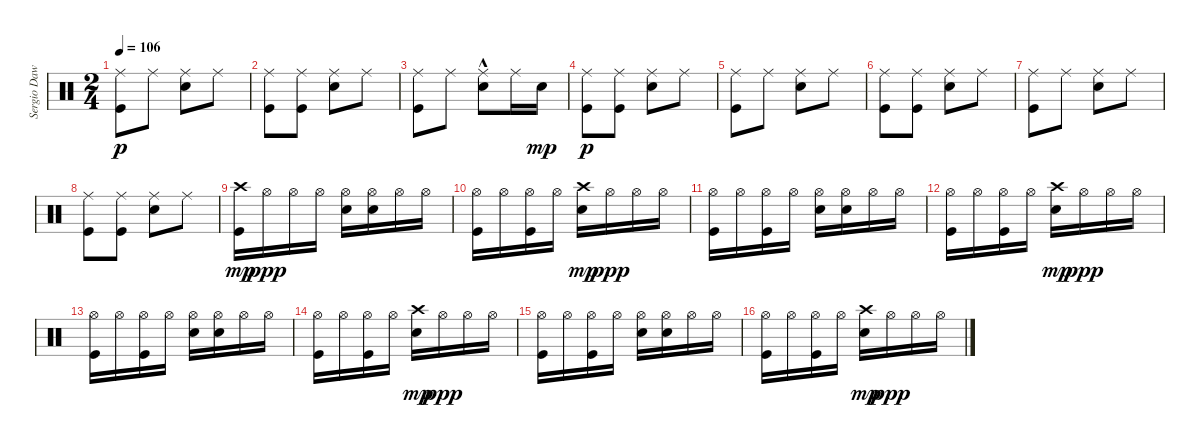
\track ("Sergio Dawi" "Sergio Daw") {instrument percussion}
\staff {score}
\articulation defaults
\ts (2 4)
\tempo 106
\clef neutral
\ks c
("Kick (hit)" "Ride (middle)").8{dy p} "Ride (middle)".8 ("Electric Snare (hit)" "Ride (middle)").8 "Ride (middle)".8 |
("Kick (hit)" "Ride (middle)").8 ("Kick (hit)" "Ride (middle)").8 ("Electric Snare (hit)" "Ride (middle)").8 "Ride (middle)".8 |
("Kick (hit)" "Ride (middle)").8 "Ride (middle)".8 ("Electric Snare (hit)"{hac} "Ride (middle)").8 "Ride (middle)".16 "Electric Snare (hit)".16{dy mp} |
("Kick (hit)" "Ride (middle)").8{dy p} ("Kick (hit)" "Ride (middle)").8 ("Electric Snare (hit)" "Ride (middle)").8 "Ride (middle)".8 |
("Kick (hit)" "Ride (middle)").8 "Ride (middle)".8 ("Electric Snare (hit)" "Ride (middle)").8 "Ride (middle)".8 |
("Kick (hit)" "Ride (middle)").8 ("Kick (hit)" "Ride (middle)").8 ("Electric Snare (hit)" "Ride (middle)").8 "Ride (middle)".8 |
("Kick (hit)" "Ride (middle)").8 "Ride (middle)".8 ("Electric Snare (hit)" "Ride (middle)").8 "Ride (middle)".8 |
("Kick (hit)" "Ride (middle)").8 ("Kick (hit)" "Ride (middle)").8 ("Electric Snare (hit)" "Ride (middle)").8 "Ride (middle)".8 |
("Kick (hit)" "Crash high (hit)").16{dy mp} "Hi-Hat (open)".16{dy ppp} "Hi-Hat (open)".16 "Hi-Hat (open)".16 ("Electric Snare (hit)" "Hi-Hat (open)").16 ("Electric Snare (hit)" "Hi-Hat (open)").16 "Hi-Hat (open)".16 "Hi-Hat (open)".16 |
("Kick (hit)" "Hi-Hat (open)").16 "Hi-Hat (open)".16 ("Kick (hit)" "Hi-Hat (open)").16 "Hi-Hat (open)".16 ("Electric Snare (hit)" "Crash high (hit)").16{dy mp} "Hi-Hat (open)".16{dy ppp} "Hi-Hat (open)".16 "Hi-Hat (open)".16 |
("Kick (hit)" "Hi-Hat (open)").16 "Hi-Hat (open)".16 ("Kick (hit)" "Hi-Hat (open)").16 "Hi-Hat (open)".16 ("Electric Snare (hit)" "Hi-Hat (open)").16 ("Electric Snare (hit)" "Hi-Hat (open)").16 "Hi-Hat (open)".16 "Hi-Hat (open)".16 |
("Kick (hit)" "Hi-Hat (open)").16 "Hi-Hat (open)".16 ("Kick (hit)" "Hi-Hat (open)").16 "Hi-Hat (open)".16 ("Electric Snare (hit)" "Crash high (hit)").16{dy mp} "Hi-Hat (open)".16{dy ppp} "Hi-Hat (open)".16 "Hi-Hat (open)".16 |
("Kick (hit)" "Hi-Hat (open)").16 "Hi-Hat (open)".16 ("Kick (hit)" "Hi-Hat (open)").16 "Hi-Hat (open)".16 ("Electric Snare (hit)" "Hi-Hat (open)").16 ("Electric Snare (hit)" "Hi-Hat (open)").16 "Hi-Hat (open)".16 "Hi-Hat (open)".16 |
("Kick (hit)" "Hi-Hat (open)").16 "Hi-Hat (open)".16 ("Kick (hit)" "Hi-Hat (open)").16 "Hi-Hat (open)".16 ("Electric Snare (hit)" "Crash high (hit)").16{dy mp} "Hi-Hat (open)".16{dy ppp} "Hi-Hat (open)".16 "Hi-Hat (open)".16 |
("Kick (hit)" "Hi-Hat (open)").16 "Hi-Hat (open)".16 ("Kick (hit)" "Hi-Hat (open)").16 "Hi-Hat (open)".16 ("Electric Snare (hit)" "Hi-Hat (open)").16 ("Electric Snare (hit)" "Hi-Hat (open)").16 "Hi-Hat (open)".16 "Hi-Hat (open)".16 |
("Kick (hit)" "Hi-Hat (open)").16 "Hi-Hat (open)".16 ("Kick (hit)" "Hi-Hat (open)").16 "Hi-Hat (open)".16 ("Electric Snare (hit)" "Crash high (hit)").16{dy mp} "Hi-Hat (open)".16{dy ppp} "Hi-Hat (open)".16 "Hi-Hat (open)".16
